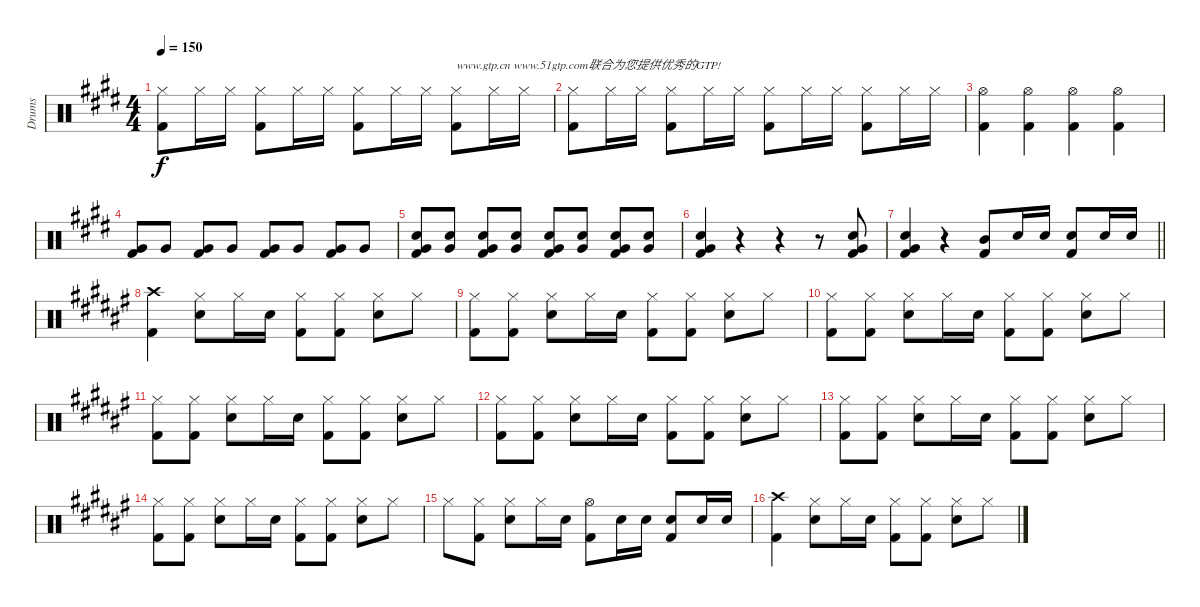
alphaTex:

\track ("Drums" "Drums") {instrument percussion}
\staff {score}
\articulation defaults
\ts (4 4)
\tempo 150
\clef neutral
\ks e
("Hi-Hat (closed)" "Kick (hit) 2").8{dy f} "Hi-Hat (closed)".16 "Hi-Hat (closed)".16 ("Hi-Hat (closed)" "Kick (hit) 2").8 "Hi-Hat (closed)".16 "Hi-Hat (closed)".16 ("Hi-Hat (closed)" "Kick (hit) 2").8 "Hi-Hat (closed)".16 "Hi-Hat (closed)".16 ("Hi-Hat (closed)" "Kick (hit) 2").8{txt "www.gtp.cn www.51gtp.com联合为您提供优秀的GTP!"} "Hi-Hat (closed)".16 "Hi-Hat (closed)".16 |
("Hi-Hat (closed)" "Kick (hit) 2").8 "Hi-Hat (closed)".16 "Hi-Hat (closed)".16 ("Hi-Hat (closed)" "Kick (hit) 2").8 "Hi-Hat (closed)".16 "Hi-Hat (closed)".16 ("Hi-Hat (closed)" "Kick (hit) 2").8 "Hi-Hat (closed)".16 "Hi-Hat (closed)".16 ("Hi-Hat (closed)" "Kick (hit) 2").8 "Hi-Hat (closed)".16 "Hi-Hat (closed)".16 |
("Hi-Hat (open)" "Kick (hit) 2").4 ("Hi-Hat (open)" "Kick (hit) 2").4 ("Hi-Hat (open)" "Kick (hit) 2").4 ("Hi-Hat (open)" "Kick (hit) 2").4 |
("Very Low Tom (hit)" "Kick (hit) 2").8 "Very Low Tom (hit)".8 ("Very Low Tom (hit)" "Kick (hit) 2").8 "Very Low Tom (hit)".8 ("Very Low Tom (hit)" "Kick (hit) 2").8 "Very Low Tom (hit)".8 ("Very Low Tom (hit)" "Kick (hit) 2").8 "Very Low Tom (hit)".8 |
("Very Low Tom (hit)" "Snare (hit) 2" "Kick (hit) 2").8 ("Very Low Tom (hit)" "Snare (hit) 2").8 ("Very Low Tom (hit)" "Snare (hit) 2" "Kick (hit) 2").8 ("Very Low Tom (hit)" "Snare (hit) 2").8 ("Very Low Tom (hit)" "Snare (hit) 2" "Kick (hit) 2").8 ("Very Low Tom (hit)" "Snare (hit) 2").8 ("Very Low Tom (hit)" "Snare (hit) 2" "Kick (hit) 2").8 ("Very Low Tom (hit)" "Snare (hit) 2").8 |
("Very Low Tom (hit)" "Snare (hit) 2" "Kick (hit) 2").4 r.4 r.4 r.8 ("Very Low Tom (hit)" "Snare (hit) 2" "Kick (hit) 2").8 |
\barLineRight lightlight
("Very Low Tom (hit)" "Snare (hit) 2" "Kick (hit) 2").4 r.4 ("Mid Tom (hit)" "Kick (hit) 2").8 "Snare (hit) 2".16 "Snare (hit) 2".16 ("Snare (hit) 2" "Kick (hit) 2").8 "Snare (hit) 2".16 "Snare (hit) 2".16 |
\ks f#
("Crash high (hit)" "Kick (hit) 2").4 ("Hi-Hat (closed)" "Snare (hit) 2").8 "Hi-Hat (closed)".16 "Snare (hit) 2".16 ("Hi-Hat (closed)" "Kick (hit) 2").8 ("Hi-Hat (closed)" "Kick (hit) 2").8 ("Hi-Hat (closed)" "Snare (hit) 2").8 "Hi-Hat (closed)".8 |
("Hi-Hat (closed)" "Kick (hit) 2").8 ("Hi-Hat (closed)" "Kick (hit) 2").8 ("Hi-Hat (closed)" "Snare (hit) 2").8 "Hi-Hat (closed)".16 "Snare (hit) 2".16 ("Hi-Hat (closed)" "Kick (hit) 2").8 ("Hi-Hat (closed)" "Kick (hit) 2").8 ("Hi-Hat (closed)" "Snare (hit) 2").8 "Hi-Hat (closed)".8 |
("Hi-Hat (closed)" "Kick (hit) 2").8 ("Hi-Hat (closed)" "Kick (hit) 2").8 ("Hi-Hat (closed)" "Snare (hit) 2").8 "Hi-Hat (closed)".16 "Snare (hit) 2".16 ("Hi-Hat (closed)" "Kick (hit) 2").8 ("Hi-Hat (closed)" "Kick (hit) 2").8 ("Hi-Hat (closed)" "Snare (hit) 2").8 "Hi-Hat (closed)".8 |
("Hi-Hat (closed)" "Kick (hit) 2").8 ("Hi-Hat (closed)" "Kick (hit) 2").8 ("Hi-Hat (closed)" "Snare (hit) 2").8 "Hi-Hat (closed)".16 "Snare (hit) 2".16 ("Hi-Hat (closed)" "Kick (hit) 2").8 ("Hi-Hat (closed)" "Kick (hit) 2").8 ("Hi-Hat (closed)" "Snare (hit) 2").8 "Hi-Hat (closed)".8 |
("Hi-Hat (closed)" "Kick (hit) 2").8 ("Hi-Hat (closed)" "Kick (hit) 2").8 ("Hi-Hat (closed)" "Snare (hit) 2").8 "Hi-Hat (closed)".16 "Snare (hit) 2".16 ("Hi-Hat (closed)" "Kick (hit) 2").8 ("Hi-Hat (closed)" "Kick (hit) 2").8 ("Hi-Hat (closed)" "Snare (hit) 2").8 "Hi-Hat (closed)".8 |
("Hi-Hat (closed)" "Kick (hit) 2").8 ("Hi-Hat (closed)" "Kick (hit) 2").8 ("Hi-Hat (closed)" "Snare (hit) 2").8 "Hi-Hat (closed)".16 "Snare (hit) 2".16 ("Hi-Hat (closed)" "Kick (hit) 2").8 ("Hi-Hat (closed)" "Kick (hit) 2").8 ("Hi-Hat (closed)" "Snare (hit) 2").8 "Hi-Hat (closed)".8 |
("Hi-Hat (closed)" "Kick (hit) 2").8 ("Hi-Hat (closed)" "Kick (hit) 2").8 ("Hi-Hat (closed)" "Snare (hit) 2").8 "Hi-Hat (closed)".16 "Snare (hit) 2".16 ("Hi-Hat (closed)" "Kick (hit) 2").8 ("Hi-Hat (closed)" "Kick (hit) 2").8 ("Hi-Hat (closed)" "Snare (hit) 2").8 "Hi-Hat (closed)".8 |
"Hi-Hat (closed)".8 ("Hi-Hat (closed)" "Kick (hit) 2").8 ("Hi-Hat (closed)" "Snare (hit) 2").8 "Hi-Hat (closed)".16 "Snare (hit) 2".16 ("Hi-Hat (open)" "Kick (hit) 2").8 "Snare (hit) 2".16 "Snare (hit) 2".16 ("Snare (hit) 2" "Kick (hit) 2").8 "Snare (hit) 2".16 "Snare (hit) 2".16 |
("Crash high (hit)" "Kick (hit) 2").4 ("Hi-Hat (closed)" "Snare (hit) 2").8 "Hi-Hat (closed)".16 "Snare (hit) 2".16 ("Hi-Hat (closed)" "Kick (hit) 2").8 ("Hi-Hat (closed)" "Kick (hit) 2").8 ("Hi-Hat (closed)" "Snare (hit) 2").8 "Hi-Hat (closed)".8
